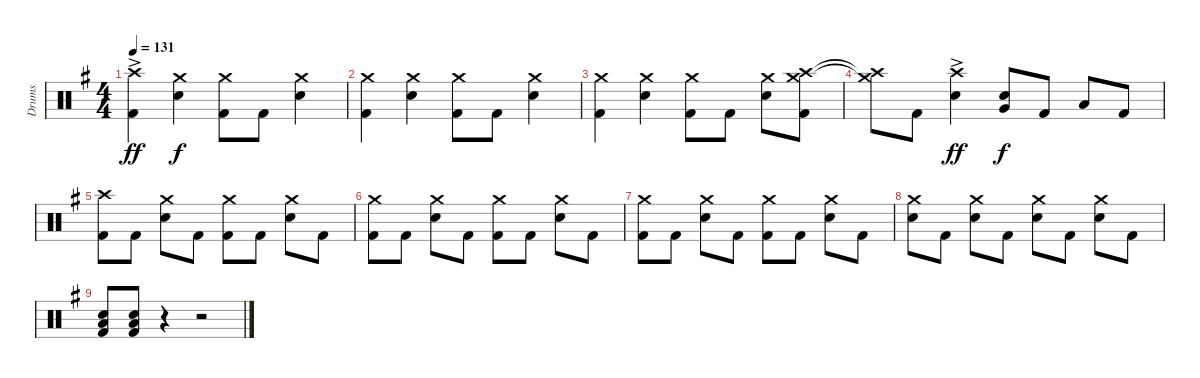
\track ("Drums" "Drums") {instrument percussion}
\staff {score}
\articulation defaults
\ts (4 4)
\tempo 131
\clef neutral
\ks g
("Crash high (hit)"{ac} "Kick (hit) 2").4{dy ff} ("Crash medium (hit)" "Electric Snare (hit)").4{dy f} ("Crash medium (hit)" "Kick (hit) 2").8 "Kick (hit) 2".8 ("Crash medium (hit)" "Electric Snare (hit)").4 |
("Crash medium (hit)" "Kick (hit) 2").4 ("Crash medium (hit)" "Electric Snare (hit)").4 ("Crash medium (hit)" "Kick (hit) 2").8 "Kick (hit) 2".8 ("Crash medium (hit)" "Electric Snare (hit)").4 |
("Crash medium (hit)" "Kick (hit) 2").4 ("Crash medium (hit)" "Electric Snare (hit)").4 ("Crash medium (hit)" "Kick (hit) 2").8 "Kick (hit) 2".8 ("Crash medium (hit)" "Electric Snare (hit)").8 ("Crash high (hit)" "Crash medium (hit)" "Kick (hit) 2").8 |
("Crash high (hit)"{t} "Crash medium (hit)"{t}).8 "Kick (hit) 2".8 ("Crash high (hit)"{ac} "Electric Snare (hit)").4{dy ff} ("Very Low Tom (hit)" "Electric Snare (hit)").8{dy f} "Kick (hit) 2".8 "Low Tom (hit)".8 "Kick (hit) 2".8 |
("Crash high (hit)" "Kick (hit) 2").8 "Kick (hit) 2".8 ("Crash medium (hit)" "Electric Snare (hit)").8 "Kick (hit) 2".8 ("Crash medium (hit)" "Kick (hit) 2").8 "Kick (hit) 2".8 ("Crash medium (hit)" "Electric Snare (hit)").8 "Kick (hit) 2".8 |
("Crash medium (hit)" "Kick (hit) 2").8 "Kick (hit) 2".8 ("Crash medium (hit)" "Electric Snare (hit)").8 "Kick (hit) 2".8 ("Crash medium (hit)" "Kick (hit) 2").8 "Kick (hit) 2".8 ("Crash medium (hit)" "Electric Snare (hit)").8 "Kick (hit) 2".8 |
("Crash medium (hit)" "Kick (hit) 2").8 "Kick (hit) 2".8 ("Crash medium (hit)" "Electric Snare (hit)").8 "Kick (hit) 2".8 ("Crash medium (hit)" "Kick (hit) 2").8 "Kick (hit) 2".8 ("Crash medium (hit)" "Electric Snare (hit)").8 "Kick (hit) 2".8 |
("Crash medium (hit)" "Electric Snare (hit)").8 "Kick (hit) 2".8 ("Crash medium (hit)" "Electric Snare (hit)").8 "Kick (hit) 2".8 ("Crash medium (hit)" "Electric Snare (hit)").8 "Kick (hit) 2".8 ("Crash medium (hit)" "Electric Snare (hit)").8 "Kick (hit) 2".8 |
("Electric Snare (hit)" "Low Floor Tom (hit)" "Kick (hit) 2").8 ("Electric Snare (hit)" "Low Floor Tom (hit)" "Kick (hit) 2").8 r.4 r.2
